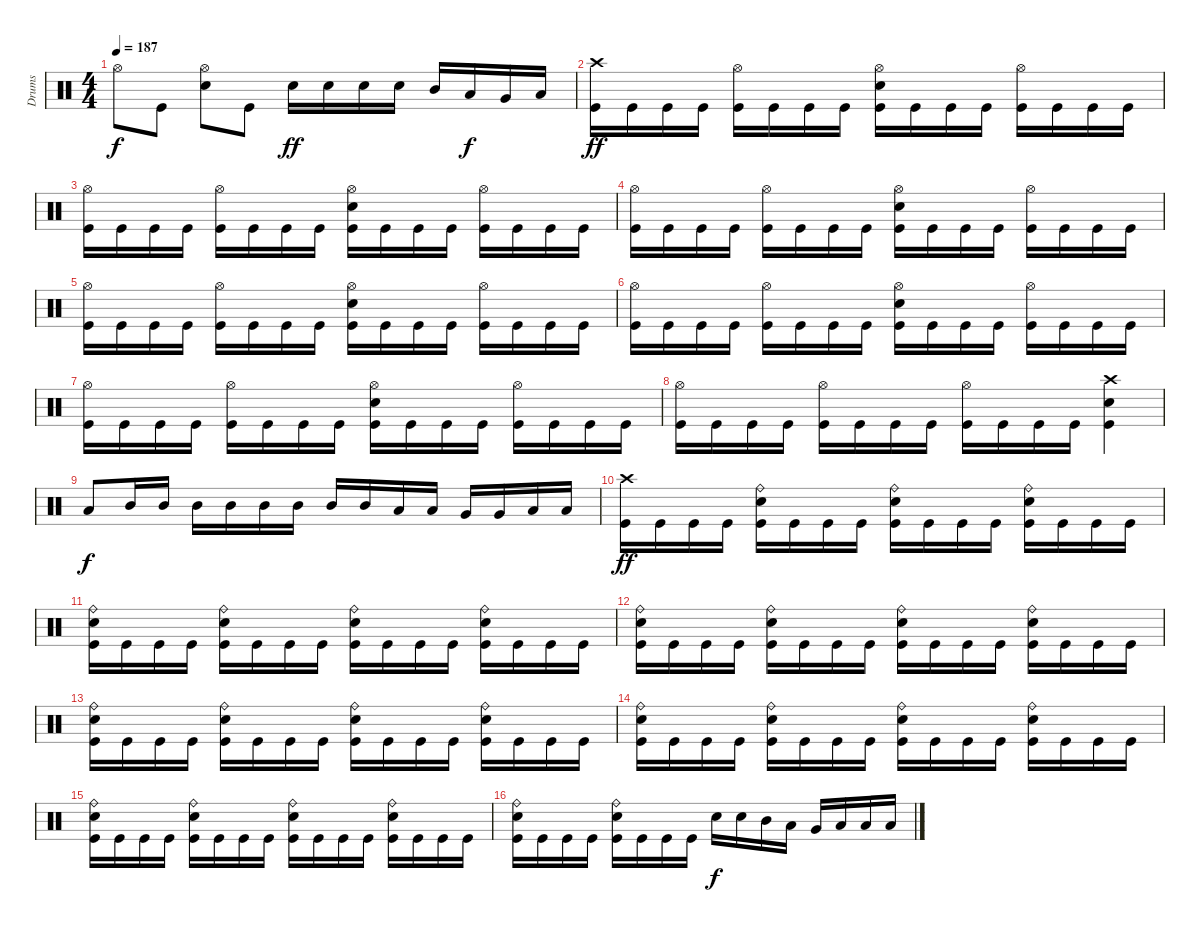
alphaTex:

\track ("Drums" "Drums") {instrument percussion}
\staff {score}
\articulation defaults
\ts (4 4)
\tempo 187
\clef neutral
\ks c "Hi-Hat (open)".8{dy f} "Kick (hit)".8
("Hi-Hat (open)" "Electric Snare (hit)").8 "Kick (hit)".8 "Electric Snare (hit)".16{dy ff} "Electric Snare (hit)".16 "Electric Snare (hit)".16 "Electric Snare (hit)".16 "Mid Tom (hit)".16 "Low Tom (hit)".16{dy f} "Very Low Tom (hit)".16 "Low Floor Tom (hit)".16 |
("Crash high (hit)" "Kick (hit)").16{dy ff} "Kick (hit)".16 "Kick (hit)".16 "Kick (hit)".16 ("Hi-Hat (open)" "Kick (hit)").16 "Kick (hit)".16 "Kick (hit)".16 "Kick (hit)".16 ("Hi-Hat (open)" "Electric Snare (hit)" "Kick (hit)").16 "Kick (hit)".16 "Kick (hit)".16 "Kick (hit)".16 ("Hi-Hat (open)" "Kick (hit)").16 "Kick (hit)".16 "Kick (hit)".16 "Kick (hit)".16 |
("Hi-Hat (open)" "Kick (hit)").16 "Kick (hit)".16 "Kick (hit)".16 "Kick (hit)".16 ("Hi-Hat (open)" "Kick (hit)").16 "Kick (hit)".16 "Kick (hit)".16 "Kick (hit)".16 ("Hi-Hat (open)" "Electric Snare (hit)" "Kick (hit)").16 "Kick (hit)".16 "Kick (hit)".16 "Kick (hit)".16 ("Hi-Hat (open)" "Kick (hit)").16 "Kick (hit)".16 "Kick (hit)".16 "Kick (hit)".16 |
("Hi-Hat (open)" "Kick (hit)").16 "Kick (hit)".16 "Kick (hit)".16 "Kick (hit)".16 ("Hi-Hat (open)" "Kick (hit)").16 "Kick (hit)".16 "Kick (hit)".16 "Kick (hit)".16 ("Hi-Hat (open)" "Electric Snare (hit)" "Kick (hit)").16 "Kick (hit)".16 "Kick (hit)".16 "Kick (hit)".16 ("Hi-Hat (open)" "Kick (hit)").16 "Kick (hit)".16 "Kick (hit)".16 "Kick (hit)".16 |
("Hi-Hat (open)" "Kick (hit)").16 "Kick (hit)".16 "Kick (hit)".16 "Kick (hit)".16 ("Hi-Hat (open)" "Kick (hit)").16 "Kick (hit)".16 "Kick (hit)".16 "Kick (hit)".16 ("Hi-Hat (open)" "Electric Snare (hit)" "Kick (hit)").16 "Kick (hit)".16 "Kick (hit)".16 "Kick (hit)".16 ("Hi-Hat (open)" "Kick (hit)").16 "Kick (hit)".16 "Kick (hit)".16 "Kick (hit)".16 |
("Hi-Hat (open)" "Kick (hit)").16 "Kick (hit)".16 "Kick (hit)".16 "Kick (hit)".16 ("Hi-Hat (open)" "Kick (hit)").16 "Kick (hit)".16 "Kick (hit)".16 "Kick (hit)".16 ("Hi-Hat (open)" "Electric Snare (hit)" "Kick (hit)").16 "Kick (hit)".16 "Kick (hit)".16 "Kick (hit)".16 ("Hi-Hat (open)" "Kick (hit)").16 "Kick (hit)".16 "Kick (hit)".16 "Kick (hit)".16 |
("Hi-Hat (open)" "Kick (hit)").16 "Kick (hit)".16 "Kick (hit)".16 "Kick (hit)".16 ("Hi-Hat (open)" "Kick (hit)").16 "Kick (hit)".16 "Kick (hit)".16 "Kick (hit)".16 ("Hi-Hat (open)" "Electric Snare (hit)" "Kick (hit)").16 "Kick (hit)".16 "Kick (hit)".16 "Kick (hit)".16 ("Hi-Hat (open)" "Kick (hit)").16 "Kick (hit)".16 "Kick (hit)".16 "Kick (hit)".16 |
("Hi-Hat (open)" "Kick (hit)").16 "Kick (hit)".16 "Kick (hit)".16 "Kick (hit)".16 ("Hi-Hat (open)" "Kick (hit)").16 "Kick (hit)".16 "Kick (hit)".16 "Kick (hit)".16 ("Hi-Hat (open)" "Kick (hit)").16 "Kick (hit)".16 "Kick (hit)".16 "Kick (hit)".16 ("Crash high (hit)" "Electric Snare (hit)" "Kick (hit)").4 |
"Low Floor Tom (hit)".8{dy f} "Mid Tom (hit)".16 "Mid Tom (hit)".16 "Mid Tom (hit)".16 "Mid Tom (hit)".16 "Mid Tom (hit)".16 "Mid Tom (hit)".16 "Mid Tom (hit)".16 "Mid Tom (hit)".16 "Low Tom (hit)".16 "Low Tom (hit)".16 "Very Low Tom (hit)".16 "Very Low Tom (hit)".16 "Low Floor Tom (hit)".16 "Low Floor Tom (hit)".16 |
("Crash high (hit)" "Kick (hit)").16{dy ff} "Kick (hit)".16 "Kick (hit)".16 "Kick (hit)".16 ("Ride (bell)" "Electric Snare (hit)" "Kick (hit)").16 "Kick (hit)".16 "Kick (hit)".16 "Kick (hit)".16 ("Ride (bell)" "Electric Snare (hit)" "Kick (hit)").16 "Kick (hit)".16 "Kick (hit)".16 "Kick (hit)".16 ("Ride (bell)" "Electric Snare (hit)" "Kick (hit)").16 "Kick (hit)".16 "Kick (hit)".16 "Kick (hit)".16 |
("Ride (bell)" "Electric Snare (hit)" "Kick (hit)").16 "Kick (hit)".16 "Kick (hit)".16 "Kick (hit)".16 ("Ride (bell)" "Electric Snare (hit)" "Kick (hit)").16 "Kick (hit)".16 "Kick (hit)".16 "Kick (hit)".16 ("Ride (bell)" "Electric Snare (hit)" "Kick (hit)").16 "Kick (hit)".16 "Kick (hit)".16 "Kick (hit)".16 ("Ride (bell)" "Electric Snare (hit)" "Kick (hit)").16 "Kick (hit)".16 "Kick (hit)".16 "Kick (hit)".16 |
("Ride (bell)" "Electric Snare (hit)" "Kick (hit)").16 "Kick (hit)".16 "Kick (hit)".16 "Kick (hit)".16 ("Ride (bell)" "Electric Snare (hit)" "Kick (hit)").16 "Kick (hit)".16 "Kick (hit)".16 "Kick (hit)".16 ("Ride (bell)" "Electric Snare (hit)" "Kick (hit)").16 "Kick (hit)".16 "Kick (hit)".16 "Kick (hit)".16 ("Ride (bell)" "Electric Snare (hit)" "Kick (hit)").16 "Kick (hit)".16 "Kick (hit)".16 "Kick (hit)".16 |
("Ride (bell)" "Electric Snare (hit)" "Kick (hit)").16 "Kick (hit)".16 "Kick (hit)".16 "Kick (hit)".16 ("Ride (bell)" "Electric Snare (hit)" "Kick (hit)").16 "Kick (hit)".16 "Kick (hit)".16 "Kick (hit)".16 ("Ride (bell)" "Electric Snare (hit)" "Kick (hit)").16 "Kick (hit)".16 "Kick (hit)".16 "Kick (hit)".16 ("Ride (bell)" "Electric Snare (hit)" "Kick (hit)").16 "Kick (hit)".16 "Kick (hit)".16 "Kick (hit)".16 |
("Ride (bell)" "Electric Snare (hit)" "Kick (hit)").16 "Kick (hit)".16 "Kick (hit)".16 "Kick (hit)".16 ("Ride (bell)" "Electric Snare (hit)" "Kick (hit)").16 "Kick (hit)".16 "Kick (hit)".16 "Kick (hit)".16 ("Ride (bell)" "Electric Snare (hit)" "Kick (hit)").16 "Kick (hit)".16 "Kick (hit)".16 "Kick (hit)".16 ("Ride (bell)" "Electric Snare (hit)" "Kick (hit)").16 "Kick (hit)".16 "Kick (hit)".16 "Kick (hit)".16 |
("Ride (bell)" "Electric Snare (hit)" "Kick (hit)").16 "Kick (hit)".16 "Kick (hit)".16 "Kick (hit)".16 ("Ride (bell)" "Electric Snare (hit)" "Kick (hit)").16 "Kick (hit)".16 "Kick (hit)".16 "Kick (hit)".16 ("Ride (bell)" "Electric Snare (hit)" "Kick (hit)").16 "Kick (hit)".16 "Kick (hit)".16 "Kick (hit)".16 ("Ride (bell)" "Electric Snare (hit)" "Kick (hit)").16 "Kick (hit)".16 "Kick (hit)".16 "Kick (hit)".16 |
("Ride (bell)" "Electric Snare (hit)" "Kick (hit)").16 "Kick (hit)".16 "Kick (hit)".16 "Kick (hit)".16 ("Ride (bell)" "Electric Snare (hit)" "Kick (hit)").16 "Kick (hit)".16 "Kick (hit)".16 "Kick (hit)".16 "Electric Snare (hit)".16{dy f} "Electric Snare (hit)".16 "Mid Tom (hit)".16 "Low Tom (hit)".16 "Very Low Tom (hit)".16 "Low Floor Tom (hit)".16 "Low Floor Tom (hit)".16 "Low Floor Tom (hit)".16
